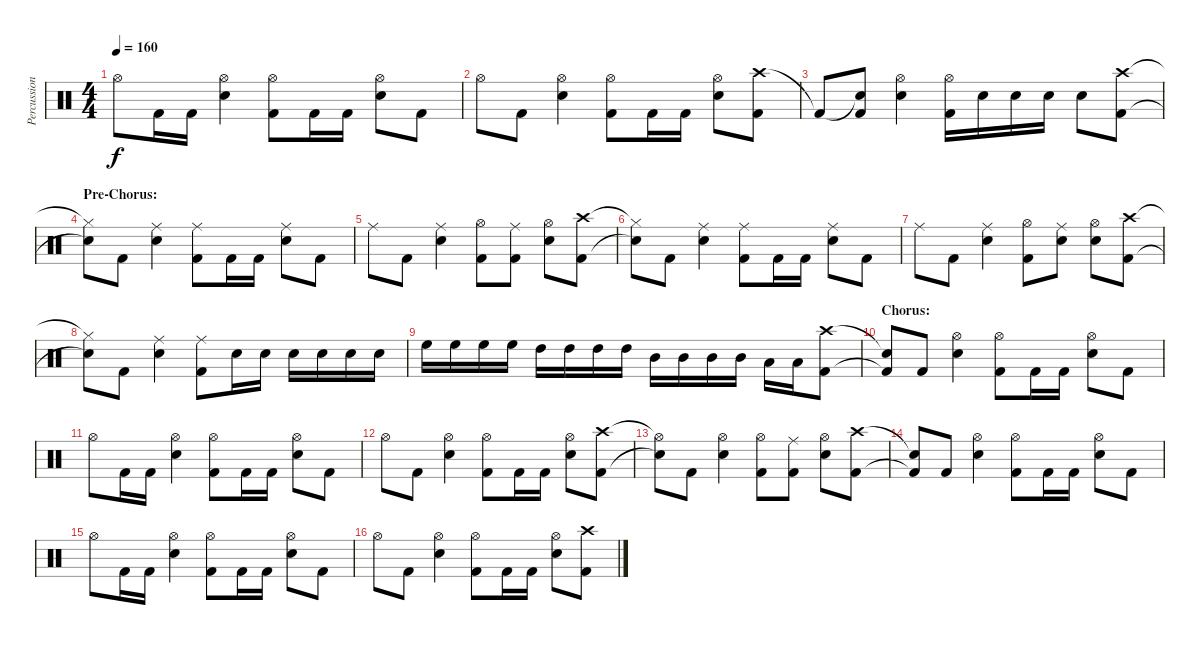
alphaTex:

\track ("Percussion" "Percussion") {instrument percussion}
\staff {score}
\articulation defaults
\ts (4 4)
\tempo 160
\clef neutral
\ks c "Hi-Hat (open)".8{dy f} "Kick (hit) 2".16 "Kick (hit) 2".16
("Hi-Hat (open)" "Electric Snare (hit)").4 ("Hi-Hat (open)" "Kick (hit) 2").8 "Kick (hit) 2".16 "Kick (hit) 2".16 ("Hi-Hat (open)" "Electric Snare (hit)").8 "Kick (hit) 2".8 |
"Hi-Hat (open)".8 "Kick (hit) 2".8 ("Hi-Hat (open)" "Electric Snare (hit)").4 ("Hi-Hat (open)" "Kick (hit) 2").8 "Kick (hit) 2".16 "Kick (hit) 2".16 ("Hi-Hat (open)" "Electric Snare (hit)").8 ("Crash high (hit)" "Kick (hit) 2").8 |
"Kick (hit) 2"{t}.8 ("Snare (hit)"{t} "Kick (hit) 2").8 ("Hi-Hat (open)" "Electric Snare (hit)").4 ("Hi-Hat (open)" "Kick (hit) 2").16 "Electric Snare (hit)".16 "Electric Snare (hit)".16 "Electric Snare (hit)".16 "Electric Snare (hit)".8 ("Crash high (hit)" "Kick (hit) 2").8 |
\section ("" "Pre-Chorus:")
("Hi-Hat (closed)"{t} "Snare (hit)"{t}).8 "Kick (hit) 2".8 ("Ride (middle)" "Electric Snare (hit)").4 ("Ride (middle)" "Kick (hit) 2").8 "Kick (hit) 2".16 "Kick (hit) 2".16 ("Ride (middle)" "Electric Snare (hit)").8 "Kick (hit) 2".8 |
"Ride (middle)".8 "Kick (hit) 2".8 ("Ride (middle)" "Electric Snare (hit)").4 ("Hi-Hat (open)" "Kick (hit) 2").8 ("Ride (middle)" "Kick (hit) 2").8 ("Hi-Hat (open)" "Electric Snare (hit)").8 ("Crash high (hit)" "Kick (hit) 2").8 |
("Hi-Hat (closed)"{t} "Snare (hit)"{t}).8 "Kick (hit) 2".8 ("Ride (middle)" "Electric Snare (hit)").4 ("Ride (middle)" "Kick (hit) 2").8 "Kick (hit) 2".16 "Kick (hit) 2".16 ("Ride (middle)" "Electric Snare (hit)").8 "Kick (hit) 2".8 |
"Ride (middle)".8 "Kick (hit) 2".8 ("Ride (middle)" "Electric Snare (hit)").4 ("Hi-Hat (open)" "Kick (hit) 2").8 ("Ride (middle)" "Electric Snare (hit)").8 ("Hi-Hat (open)" "Electric Snare (hit)").8 ("Crash high (hit)" "Kick (hit) 2").8 |
("Hi-Hat (closed)"{t} "Snare (hit)"{t}).8 "Kick (hit) 2".8 ("Ride (middle)" "Electric Snare (hit)").4 ("Ride (middle)" "Kick (hit) 2").8 "Electric Snare (hit)".16 "Electric Snare (hit)".16 "Electric Snare (hit)".16 "Electric Snare (hit)".16 "Electric Snare (hit)".16 "Electric Snare (hit)".16 |
"High Floor Tom (hit)".16 "High Floor Tom (hit)".16 "High Floor Tom (hit)".16 "High Floor Tom (hit)".16 "High Tom (hit)".16 "High Tom (hit)".16 "High Tom (hit)".16 "High Tom (hit)".16 "Mid Tom (hit)".16 "Mid Tom (hit)".16 "Mid Tom (hit)".16 "Mid Tom (hit)".16 "Low Tom (hit)".16 "Low Tom (hit)".16 ("Crash high (hit)" "Kick (hit) 2").8 |
\section ("" "Chorus:")
("Snare (hit)"{t} "Kick (hit) 2"{t}).8 "Kick (hit) 2".8 ("Hi-Hat (open)" "Electric Snare (hit)").4 ("Hi-Hat (open)" "Kick (hit) 2").8 "Kick (hit) 2".16 "Kick (hit) 2".16 ("Hi-Hat (open)" "Electric Snare (hit)").8 "Kick (hit) 2".8 |
"Hi-Hat (open)".8 "Kick (hit) 2".16 "Kick (hit) 2".16 ("Hi-Hat (open)" "Electric Snare (hit)").4 ("Hi-Hat (open)" "Kick (hit) 2").8 "Kick (hit) 2".16 "Kick (hit) 2".16 ("Hi-Hat (open)" "Electric Snare (hit)").8 "Kick (hit) 2".8 |
"Hi-Hat (open)".8 "Kick (hit) 2".8 ("Hi-Hat (open)" "Electric Snare (hit)").4 ("Hi-Hat (open)" "Kick (hit) 2").8 "Kick (hit) 2".16 "Kick (hit) 2".16 ("Hi-Hat (open)" "Electric Snare (hit)").8 ("Crash high (hit)" "Kick (hit) 2").8 |
("Hi-Hat (open)"{t} "Snare (hit)"{t}).8 "Kick (hit) 2".8 ("Hi-Hat (open)" "Electric Snare (hit)").4 ("Hi-Hat (open)" "Kick (hit) 2").8 ("Ride (middle)" "Kick (hit) 2").8 ("Hi-Hat (open)" "Electric Snare (hit)").8 ("Crash high (hit)" "Kick (hit) 2").8 |
("Snare (hit)"{t} "Kick (hit) 2"{t}).8 "Kick (hit) 2".8 ("Hi-Hat (open)" "Electric Snare (hit)").4 ("Hi-Hat (open)" "Kick (hit) 2").8 "Kick (hit) 2".16 "Kick (hit) 2".16 ("Hi-Hat (open)" "Electric Snare (hit)").8 "Kick (hit) 2".8 |
"Hi-Hat (open)".8 "Kick (hit) 2".16 "Kick (hit) 2".16 ("Hi-Hat (open)" "Electric Snare (hit)").4 ("Hi-Hat (open)" "Kick (hit) 2").8 "Kick (hit) 2".16 "Kick (hit) 2".16 ("Hi-Hat (open)" "Electric Snare (hit)").8 "Kick (hit) 2".8 |
"Hi-Hat (open)".8 "Kick (hit) 2".8 ("Hi-Hat (open)" "Electric Snare (hit)").4 ("Hi-Hat (open)" "Kick (hit) 2").8 "Kick (hit) 2".16 "Kick (hit) 2".16 ("Hi-Hat (open)" "Electric Snare (hit)").8 ("Crash high (hit)" "Kick (hit) 2").8
